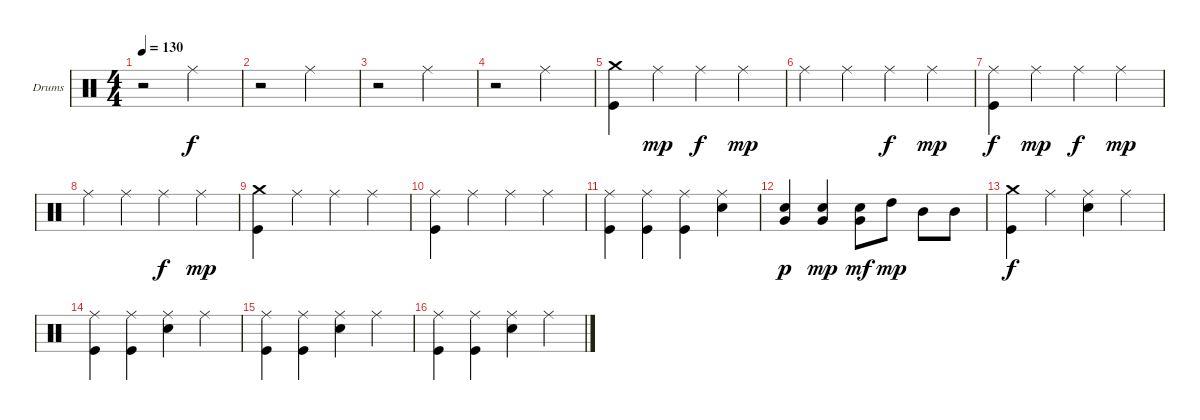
\bracketExtendMode groupsimilarinstruments
\firstSystemTrackNameOrientation horizontal
\otherSystemsTrackNameOrientation horizontal
\track ("Drumkit" "Drums") {instrument percussion}
\staff {score}
\articulation defaults
\ts (4 4)
\tempo 130
\clef neutral
\ks c
r.2{dy f} "Ride (middle)".2 |
r.2 "Ride (middle)".2 |
r.2 "Ride (middle)".2 |
r.2 "Ride (middle)".2 |
("Crash medium (hit)" "Kick (hit)").4 "Ride (middle)".4{dy mp} "Ride (middle)".4{dy f} "Ride (middle)".4{dy mp} |
"Ride (middle)".4 "Ride (middle)".4 "Ride (middle)".4{dy f} "Ride (middle)".4{dy mp} |
("Ride (middle)" "Kick (hit)").4{dy f} "Ride (middle)".4{dy mp} "Ride (middle)".4{dy f} "Ride (middle)".4{dy mp} |
"Ride (middle)".4 "Ride (middle)".4 "Ride (middle)".4{dy f} "Ride (middle)".4{dy mp} |
("Crash medium (hit)" "Kick (hit)").4 "Ride (middle)".4 "Ride (middle)".4 "Ride (middle)".4 |
("Ride (middle)" "Kick (hit)").4 "Ride (middle)".4 "Ride (middle)".4 "Ride (middle)".4 |
("Ride (middle)" "Kick (hit)").4 ("Ride (middle)" "Kick (hit)").4 ("Ride (middle)" "Kick (hit)").4 ("Ride (middle)" "Snare (hit) 2").4 |
("Snare (hit) 2" "Very Low Tom (hit)").4{dy p} ("Snare (hit) 2" "Very Low Tom (hit)").4{dy mp} ("Snare (hit) 2" "Very Low Tom (hit)").8{dy mf} "High Tom (hit)".8{dy mp} "Mid Tom (hit)".8 "Mid Tom (hit)".8 |
("Crash medium (hit)" "Kick (hit)").4{dy f} "Ride (middle)".4 ("Ride (middle)" "Snare (hit) 2").4 "Ride (middle)".4 |
("Ride (middle)" "Kick (hit)").4 ("Ride (middle)" "Kick (hit)").4 ("Ride (middle)" "Snare (hit) 2").4 "Ride (middle)".4 |
("Ride (middle)" "Kick (hit)").4 ("Ride (middle)" "Kick (hit)").4 ("Ride (middle)" "Snare (hit) 2").4 "Ride (middle)".4 |
("Ride (middle)" "Kick (hit)").4 ("Ride (middle)" "Kick (hit)").4 ("Ride (middle)" "Snare (hit) 2").4 "Ride (middle)".4
